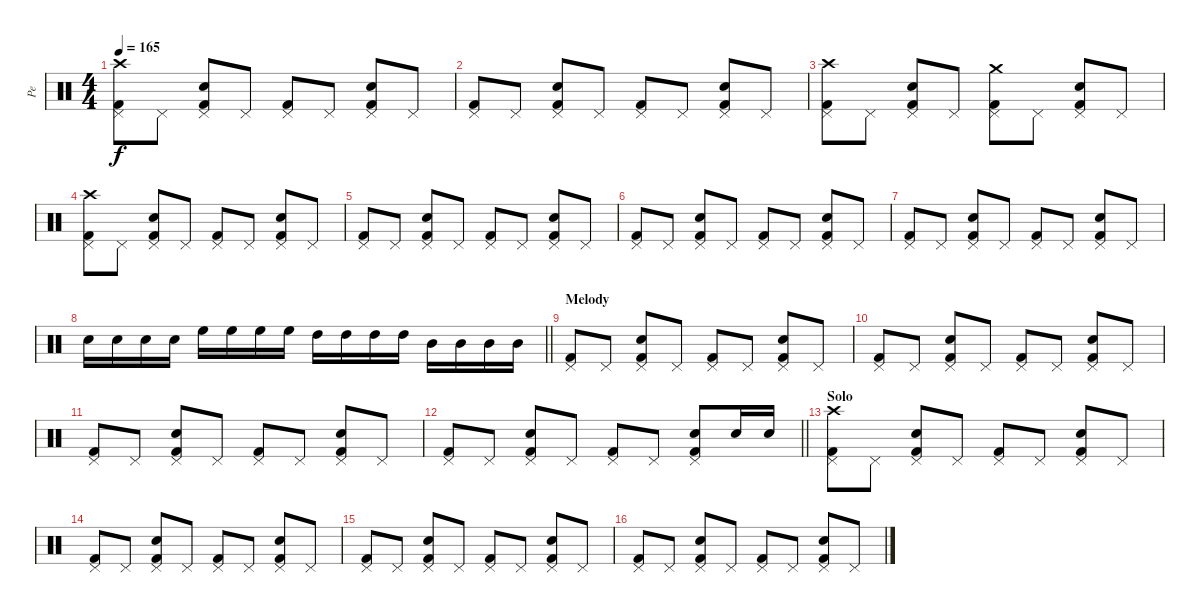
\track ("Pe" "Pe") {instrument percussion}
\staff {score}
\articulation defaults
\ts (4 4)
\tempo 165
\clef neutral
\ks c
("Pedal Hi-Hat (hit)" "Kick (hit) 2" "Crash high (hit)").8{dy f} "Pedal Hi-Hat (hit)".8 ("Electric Snare (hit)" "Pedal Hi-Hat (hit)" "Kick (hit) 2").8 "Pedal Hi-Hat (hit)".8 ("Pedal Hi-Hat (hit)" "Kick (hit) 2").8 "Pedal Hi-Hat (hit)".8 ("Electric Snare (hit)" "Pedal Hi-Hat (hit)" "Kick (hit) 2").8 "Pedal Hi-Hat (hit)".8 |
("Pedal Hi-Hat (hit)" "Kick (hit) 2").8 "Pedal Hi-Hat (hit)".8 ("Electric Snare (hit)" "Pedal Hi-Hat (hit)" "Kick (hit) 2").8 "Pedal Hi-Hat (hit)".8 ("Pedal Hi-Hat (hit)" "Kick (hit) 2").8 "Pedal Hi-Hat (hit)".8 ("Electric Snare (hit)" "Pedal Hi-Hat (hit)" "Kick (hit) 2").8 "Pedal Hi-Hat (hit)".8 |
("Pedal Hi-Hat (hit)" "Kick (hit) 2" "Crash high (hit)").8 "Pedal Hi-Hat (hit)".8 ("Electric Snare (hit)" "Pedal Hi-Hat (hit)" "Kick (hit) 2").8 "Pedal Hi-Hat (hit)".8 ("Pedal Hi-Hat (hit)" "Kick (hit) 2" "Crash medium (hit)").8 "Pedal Hi-Hat (hit)".8 ("Electric Snare (hit)" "Pedal Hi-Hat (hit)" "Kick (hit) 2").8 "Pedal Hi-Hat (hit)".8 |
("Pedal Hi-Hat (hit)" "Kick (hit) 2" "Crash high (hit)").8 "Pedal Hi-Hat (hit)".8 ("Electric Snare (hit)" "Pedal Hi-Hat (hit)" "Kick (hit) 2").8 "Pedal Hi-Hat (hit)".8 ("Pedal Hi-Hat (hit)" "Kick (hit) 2").8 "Pedal Hi-Hat (hit)".8 ("Electric Snare (hit)" "Pedal Hi-Hat (hit)" "Kick (hit) 2").8 "Pedal Hi-Hat (hit)".8 |
("Pedal Hi-Hat (hit)" "Kick (hit) 2").8 "Pedal Hi-Hat (hit)".8 ("Electric Snare (hit)" "Pedal Hi-Hat (hit)" "Kick (hit) 2").8 "Pedal Hi-Hat (hit)".8 ("Pedal Hi-Hat (hit)" "Kick (hit) 2").8 "Pedal Hi-Hat (hit)".8 ("Electric Snare (hit)" "Pedal Hi-Hat (hit)" "Kick (hit) 2").8 "Pedal Hi-Hat (hit)".8 |
("Pedal Hi-Hat (hit)" "Kick (hit) 2").8 "Pedal Hi-Hat (hit)".8 ("Electric Snare (hit)" "Pedal Hi-Hat (hit)" "Kick (hit) 2").8 "Pedal Hi-Hat (hit)".8 ("Pedal Hi-Hat (hit)" "Kick (hit) 2").8 "Pedal Hi-Hat (hit)".8 ("Electric Snare (hit)" "Pedal Hi-Hat (hit)" "Kick (hit) 2").8 "Pedal Hi-Hat (hit)".8 |
("Pedal Hi-Hat (hit)" "Kick (hit) 2").8 "Pedal Hi-Hat (hit)".8 ("Electric Snare (hit)" "Pedal Hi-Hat (hit)" "Kick (hit) 2").8 "Pedal Hi-Hat (hit)".8 ("Pedal Hi-Hat (hit)" "Kick (hit) 2").8 "Pedal Hi-Hat (hit)".8 ("Electric Snare (hit)" "Pedal Hi-Hat (hit)" "Kick (hit) 2").8 "Pedal Hi-Hat (hit)".8 |
\barLineRight lightlight "Electric Snare (hit)".16 "Electric Snare (hit)".16 "Electric Snare (hit)".16 "Electric Snare (hit)".16 "High Floor Tom (hit)".16 "High Floor Tom (hit)".16 "High Floor Tom (hit)".16 "High Floor Tom (hit)".16 "High Tom (hit)".16 "High Tom (hit)".16 "High Tom (hit)".16 "High Tom (hit)".16 "Mid Tom (hit)".16 "Mid Tom (hit)".16 "Mid Tom (hit)".16 "Mid Tom (hit)".16
|
\section ("" "Melody")
("Pedal Hi-Hat (hit)" "Kick (hit) 2").8 "Pedal Hi-Hat (hit)".8 ("Electric Snare (hit)" "Pedal Hi-Hat (hit)" "Kick (hit) 2").8 "Pedal Hi-Hat (hit)".8 ("Pedal Hi-Hat (hit)" "Kick (hit) 2").8 "Pedal Hi-Hat (hit)".8 ("Electric Snare (hit)" "Pedal Hi-Hat (hit)" "Kick (hit) 2").8 "Pedal Hi-Hat (hit)".8 |
("Pedal Hi-Hat (hit)" "Kick (hit) 2").8 "Pedal Hi-Hat (hit)".8 ("Electric Snare (hit)" "Pedal Hi-Hat (hit)" "Kick (hit) 2").8 "Pedal Hi-Hat (hit)".8 ("Pedal Hi-Hat (hit)" "Kick (hit) 2").8 "Pedal Hi-Hat (hit)".8 ("Electric Snare (hit)" "Pedal Hi-Hat (hit)" "Kick (hit) 2").8 "Pedal Hi-Hat (hit)".8 |
("Pedal Hi-Hat (hit)" "Kick (hit) 2").8 "Pedal Hi-Hat (hit)".8 ("Electric Snare (hit)" "Pedal Hi-Hat (hit)" "Kick (hit) 2").8 "Pedal Hi-Hat (hit)".8 ("Pedal Hi-Hat (hit)" "Kick (hit) 2").8 "Pedal Hi-Hat (hit)".8 ("Electric Snare (hit)" "Pedal Hi-Hat (hit)" "Kick (hit) 2").8 "Pedal Hi-Hat (hit)".8 |
\barLineRight lightlight
("Pedal Hi-Hat (hit)" "Kick (hit) 2").8 "Pedal Hi-Hat (hit)".8 ("Electric Snare (hit)" "Pedal Hi-Hat (hit)" "Kick (hit) 2").8 "Pedal Hi-Hat (hit)".8 ("Pedal Hi-Hat (hit)" "Kick (hit) 2").8 "Pedal Hi-Hat (hit)".8 ("Electric Snare (hit)" "Pedal Hi-Hat (hit)" "Kick (hit) 2").8 "Electric Snare (hit)".16 "Electric Snare (hit)".16 |
\section ("" "Solo")
("Pedal Hi-Hat (hit)" "Kick (hit) 2" "Crash high (hit)").8 "Pedal Hi-Hat (hit)".8 ("Electric Snare (hit)" "Pedal Hi-Hat (hit)" "Kick (hit) 2").8 "Pedal Hi-Hat (hit)".8 ("Pedal Hi-Hat (hit)" "Kick (hit) 2").8 "Pedal Hi-Hat (hit)".8 ("Electric Snare (hit)" "Pedal Hi-Hat (hit)" "Kick (hit) 2").8 "Pedal Hi-Hat (hit)".8 |
("Pedal Hi-Hat (hit)" "Kick (hit) 2").8 "Pedal Hi-Hat (hit)".8 ("Electric Snare (hit)" "Pedal Hi-Hat (hit)" "Kick (hit) 2").8 "Pedal Hi-Hat (hit)".8 ("Pedal Hi-Hat (hit)" "Kick (hit) 2").8 "Pedal Hi-Hat (hit)".8 ("Electric Snare (hit)" "Pedal Hi-Hat (hit)" "Kick (hit) 2").8 "Pedal Hi-Hat (hit)".8 |
("Pedal Hi-Hat (hit)" "Kick (hit) 2").8 "Pedal Hi-Hat (hit)".8 ("Electric Snare (hit)" "Pedal Hi-Hat (hit)" "Kick (hit) 2").8 "Pedal Hi-Hat (hit)".8 ("Pedal Hi-Hat (hit)" "Kick (hit) 2").8 "Pedal Hi-Hat (hit)".8 ("Electric Snare (hit)" "Pedal Hi-Hat (hit)" "Kick (hit) 2").8 "Pedal Hi-Hat (hit)".8 |
("Pedal Hi-Hat (hit)" "Kick (hit) 2").8 "Pedal Hi-Hat (hit)".8 ("Electric Snare (hit)" "Pedal Hi-Hat (hit)" "Kick (hit) 2").8 "Pedal Hi-Hat (hit)".8 ("Pedal Hi-Hat (hit)" "Kick (hit) 2").8 "Pedal Hi-Hat (hit)".8 ("Electric Snare (hit)" "Pedal Hi-Hat (hit)" "Kick (hit) 2").8 "Pedal Hi-Hat (hit)".8
